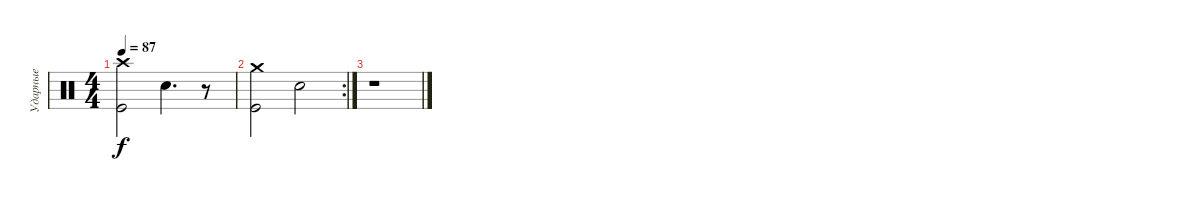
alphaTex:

\track ("Ударные" "Ударные") {instrument percussion}
\staff {score}
\articulation defaults
\ts (4 4)
\tempo 87
\clef neutral
\ks c
("Kick (hit)" "Crash high (hit)").2{dy f} "Snare (hit) 2".4{d} r.8 |
\rc 2
("Kick (hit)" "Crash medium (hit)").2 "Snare (hit) 2".2 |
r.1
